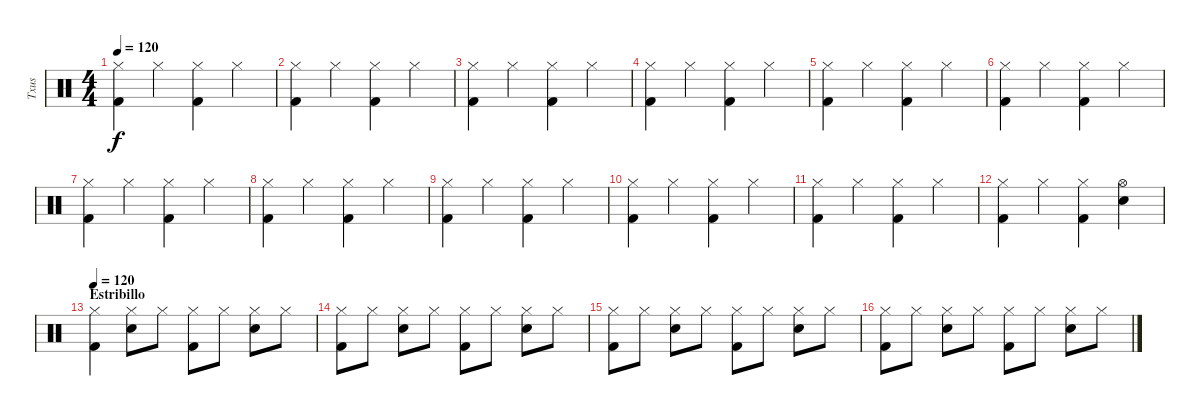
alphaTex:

\track ("Txus" "Txus") {instrument percussion}
\staff {score}
\articulation defaults
\ts (4 4)
\tempo 120
\clef neutral
\ks c
("Hi-Hat (closed)" "Kick (hit) 2").4{dy f} "Hi-Hat (closed)".4 ("Hi-Hat (closed)" "Kick (hit) 2").4 "Hi-Hat (closed)".4 |
("Hi-Hat (closed)" "Kick (hit) 2").4 "Hi-Hat (closed)".4 ("Hi-Hat (closed)" "Kick (hit) 2").4 "Hi-Hat (closed)".4 |
("Hi-Hat (closed)" "Kick (hit) 2").4 "Hi-Hat (closed)".4 ("Hi-Hat (closed)" "Kick (hit) 2").4 "Hi-Hat (closed)".4 |
("Hi-Hat (closed)" "Kick (hit) 2").4 "Hi-Hat (closed)".4 ("Hi-Hat (closed)" "Kick (hit) 2").4 "Hi-Hat (closed)".4 |
("Hi-Hat (closed)" "Kick (hit) 2").4 "Hi-Hat (closed)".4 ("Hi-Hat (closed)" "Kick (hit) 2").4 "Hi-Hat (closed)".4 |
("Hi-Hat (closed)" "Kick (hit) 2").4 "Hi-Hat (closed)".4 ("Hi-Hat (closed)" "Kick (hit) 2").4 "Hi-Hat (closed)".4 |
("Hi-Hat (closed)" "Kick (hit) 2").4 "Hi-Hat (closed)".4 ("Hi-Hat (closed)" "Kick (hit) 2").4 "Hi-Hat (closed)".4 |
("Hi-Hat (closed)" "Kick (hit) 2").4 "Hi-Hat (closed)".4 ("Hi-Hat (closed)" "Kick (hit) 2").4 "Hi-Hat (closed)".4 |
("Hi-Hat (closed)" "Kick (hit) 2").4 "Hi-Hat (closed)".4 ("Hi-Hat (closed)" "Kick (hit) 2").4 "Hi-Hat (closed)".4 |
("Hi-Hat (closed)" "Kick (hit) 2").4 "Hi-Hat (closed)".4 ("Hi-Hat (closed)" "Kick (hit) 2").4 "Hi-Hat (closed)".4 |
("Hi-Hat (closed)" "Kick (hit) 2").4 "Hi-Hat (closed)".4 ("Hi-Hat (closed)" "Kick (hit) 2").4 "Hi-Hat (closed)".4 |
("Hi-Hat (closed)" "Kick (hit) 2").4 "Hi-Hat (closed)".4 ("Hi-Hat (closed)" "Kick (hit) 2").4 ("Hi-Hat (open)" "Snare (hit) 2").4 |
\section ("" "Estribillo")
\tempo 120
("Hi-Hat (closed)" "Kick (hit) 2").4 ("Hi-Hat (closed)" "Snare (hit) 2").8 "Hi-Hat (closed)".8 ("Hi-Hat (closed)" "Kick (hit) 2").8 "Hi-Hat (closed)".8 ("Hi-Hat (closed)" "Snare (hit) 2").8 "Hi-Hat (closed)".8 |
("Hi-Hat (closed)" "Kick (hit) 2").8 "Hi-Hat (closed)".8 ("Hi-Hat (closed)" "Snare (hit) 2").8 "Hi-Hat (closed)".8 ("Hi-Hat (closed)" "Kick (hit) 2").8 "Hi-Hat (closed)".8 ("Hi-Hat (closed)" "Snare (hit) 2").8 "Hi-Hat (closed)".8 |
("Hi-Hat (closed)" "Kick (hit) 2").8 "Hi-Hat (closed)".8 ("Hi-Hat (closed)" "Snare (hit) 2").8 "Hi-Hat (closed)".8 ("Hi-Hat (closed)" "Kick (hit) 2").8 "Hi-Hat (closed)".8 ("Hi-Hat (closed)" "Snare (hit) 2").8 "Hi-Hat (closed)".8 |
("Hi-Hat (closed)" "Kick (hit) 2").8 "Hi-Hat (closed)".8 ("Hi-Hat (closed)" "Snare (hit) 2").8 "Hi-Hat (closed)".8 ("Hi-Hat (closed)" "Kick (hit) 2").8 "Hi-Hat (closed)".8 ("Hi-Hat (closed)" "Snare (hit) 2").8 "Hi-Hat (closed)".8
